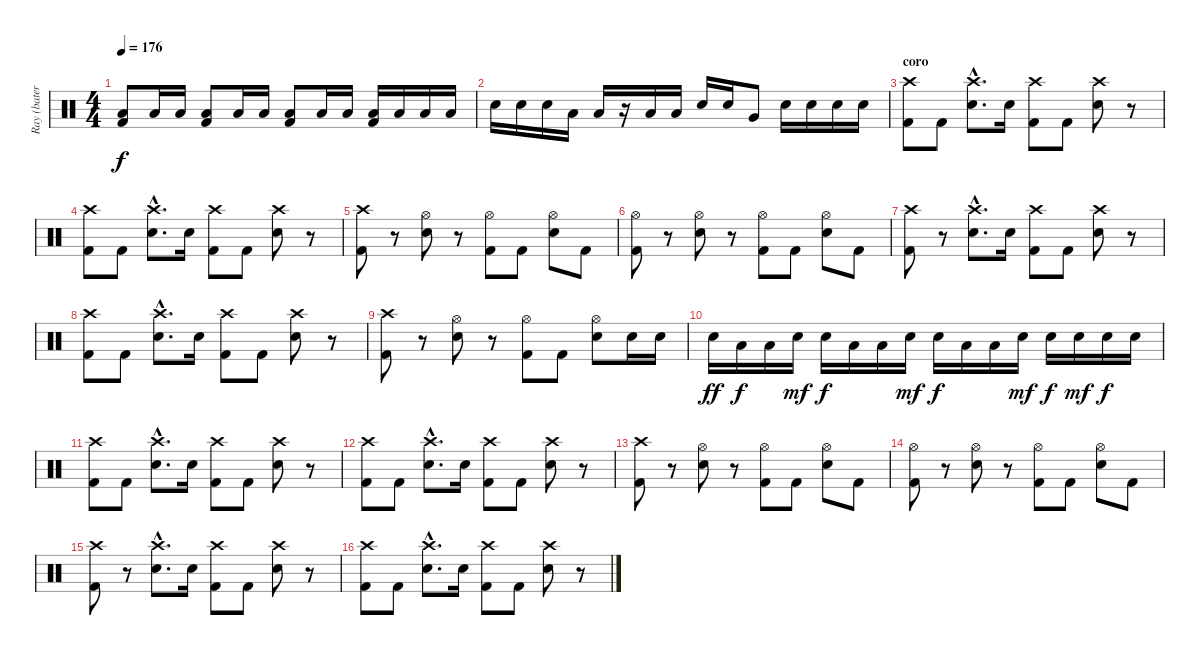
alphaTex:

\track ("Ray (batería)" "Ray (bater") {instrument percussion}
\staff {score}
\articulation defaults
\ts (4 4)
\tempo 176
\clef neutral
\ks c
("Low Floor Tom (hit)" "Kick (hit) 2").8{dy f} "Low Floor Tom (hit)".16 "Low Floor Tom (hit)".16 ("Low Floor Tom (hit)" "Kick (hit) 2").8 "Low Floor Tom (hit)".16 "Low Floor Tom (hit)".16 ("Low Floor Tom (hit)" "Kick (hit) 2").8 "Low Floor Tom (hit)".16 "Low Floor Tom (hit)".16 ("Low Floor Tom (hit)" "Kick (hit) 2").16 "Low Floor Tom (hit)".16 "Low Floor Tom (hit)".16 "Low Floor Tom (hit)".16 |
"Snare (hit) 2".16{volume 14} "Snare (hit) 2".16 "Snare (hit) 2".16 "Low Tom (hit)".16 "Low Tom (hit)".16 r.16 "Low Tom (hit)".16 "Low Tom (hit)".16 "Snare (hit) 2".16 "Snare (hit) 2".16 "Very Low Tom (hit)".8 "Snare (hit) 2".16 "Snare (hit) 2".16 "Snare (hit) 2".16 "Snare (hit) 2".16 |
\section ("" "coro")
("Crash high (hit)" "Kick (hit) 2").8 "Kick (hit) 2".8 ("Crash high (hit)"{hac} "Snare (hit) 2"{hac}).8{d} "Snare (hit) 2".16 ("Crash high (hit)" "Kick (hit) 2").8 "Kick (hit) 2".8 ("Crash high (hit)" "Snare (hit) 2").8 r.8 |
("Crash high (hit)" "Kick (hit) 2").8 "Kick (hit) 2".8 ("Crash high (hit)"{hac} "Snare (hit) 2"{hac}).8{d} "Snare (hit) 2".16 ("Crash high (hit)" "Kick (hit) 2").8 "Kick (hit) 2".8 ("Crash high (hit)" "Snare (hit) 2").8 r.8 |
("Crash high (hit)" "Kick (hit) 2").8 r.8 ("Hi-Hat (open)" "Snare (hit) 2").8 r.8 ("Hi-Hat (open)" "Kick (hit) 2").8 "Kick (hit) 2".8 ("Hi-Hat (open)" "Snare (hit) 2").8 "Kick (hit) 2".8 |
("Hi-Hat (open)" "Kick (hit) 2").8 r.8 ("Hi-Hat (open)" "Snare (hit) 2").8 r.8 ("Hi-Hat (open)" "Kick (hit) 2").8 "Kick (hit) 2".8 ("Hi-Hat (open)" "Snare (hit) 2").8 "Kick (hit) 2".8 |
("Crash high (hit)" "Kick (hit) 2").8 r.8 ("Crash high (hit)"{hac} "Snare (hit) 2"{hac}).8{d} "Snare (hit) 2".16 ("Crash high (hit)" "Kick (hit) 2").8 "Kick (hit) 2".8 ("Crash high (hit)" "Snare (hit) 2").8 r.8 |
("Crash high (hit)" "Kick (hit) 2").8 "Kick (hit) 2".8 ("Crash high (hit)"{hac} "Snare (hit) 2"{hac}).8{d} "Snare (hit) 2".16 ("Crash high (hit)" "Kick (hit) 2").8 "Kick (hit) 2".8 ("Crash high (hit)" "Snare (hit) 2").8 r.8 |
("Crash high (hit)" "Kick (hit) 2").8 r.8 ("Hi-Hat (open)" "Snare (hit) 2").8 r.8 ("Hi-Hat (open)" "Kick (hit) 2").8 "Kick (hit) 2".8 ("Hi-Hat (open)" "Snare (hit) 2").8 "Snare (hit) 2".16 "Snare (hit) 2".16 |
"Snare (hit) 2".16{dy ff} "Low Tom (hit)".16{dy f} "Low Tom (hit)".16 "Snare (hit) 2".16{dy mf} "Snare (hit) 2".16{dy f} "Low Tom (hit)".16 "Low Tom (hit)".16 "Snare (hit) 2".16{dy mf} "Snare (hit) 2".16{dy f} "Low Tom (hit)".16 "Low Tom (hit)".16 "Snare (hit) 2".16{dy mf} "Snare (hit) 2".16{dy f} "Snare (hit) 2".16{dy mf} "Snare (hit) 2".16{dy f} "Snare (hit) 2".16 |
("Crash high (hit)" "Kick (hit) 2").8 "Kick (hit) 2".8 ("Crash high (hit)"{hac} "Snare (hit) 2"{hac}).8{d} "Snare (hit) 2".16 ("Crash high (hit)" "Kick (hit) 2").8 "Kick (hit) 2".8 ("Crash high (hit)" "Snare (hit) 2").8 r.8 |
("Crash high (hit)" "Kick (hit) 2").8 "Kick (hit) 2".8 ("Crash high (hit)"{hac} "Snare (hit) 2"{hac}).8{d} "Snare (hit) 2".16 ("Crash high (hit)" "Kick (hit) 2").8 "Kick (hit) 2".8 ("Crash high (hit)" "Snare (hit) 2").8 r.8 |
("Crash high (hit)" "Kick (hit) 2").8 r.8 ("Hi-Hat (open)" "Snare (hit) 2").8 r.8 ("Hi-Hat (open)" "Kick (hit) 2").8 "Kick (hit) 2".8 ("Hi-Hat (open)" "Snare (hit) 2").8 "Kick (hit) 2".8 |
("Hi-Hat (open)" "Kick (hit) 2").8 r.8 ("Hi-Hat (open)" "Snare (hit) 2").8 r.8 ("Hi-Hat (open)" "Kick (hit) 2").8 "Kick (hit) 2".8 ("Hi-Hat (open)" "Snare (hit) 2").8 "Kick (hit) 2".8 |
("Crash high (hit)" "Kick (hit) 2").8 r.8 ("Crash high (hit)"{hac} "Snare (hit) 2"{hac}).8{d} "Snare (hit) 2".16 ("Crash high (hit)" "Kick (hit) 2").8 "Kick (hit) 2".8 ("Crash high (hit)" "Snare (hit) 2").8 r.8 |
("Crash high (hit)" "Kick (hit) 2").8 "Kick (hit) 2".8 ("Crash high (hit)"{hac} "Snare (hit) 2"{hac}).8{d} "Snare (hit) 2".16 ("Crash high (hit)" "Kick (hit) 2").8 "Kick (hit) 2".8 ("Crash high (hit)" "Snare (hit) 2").8 r.8
